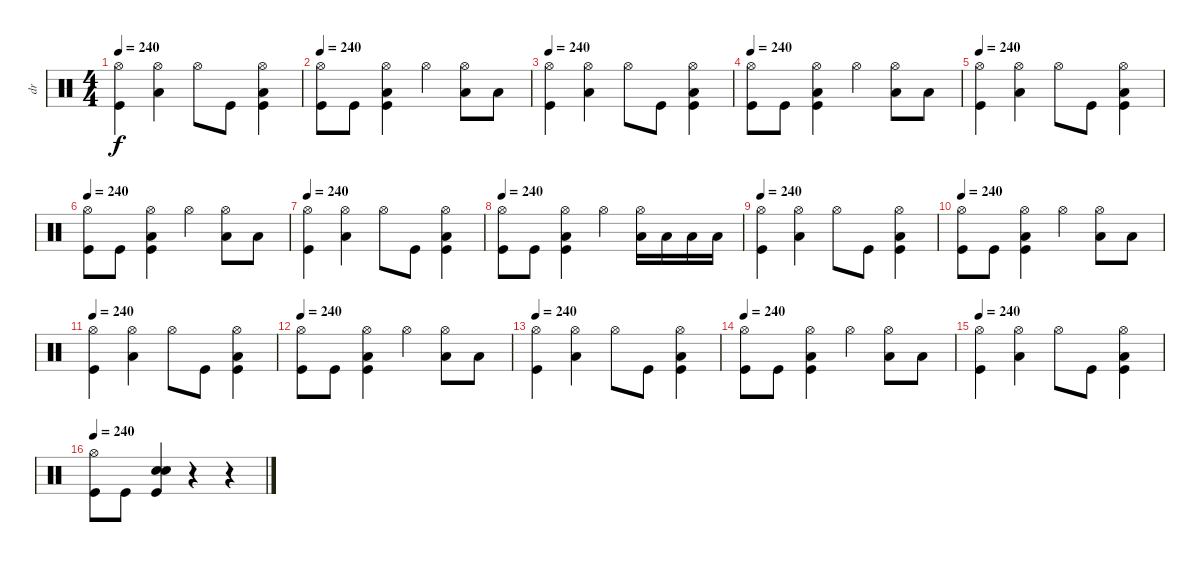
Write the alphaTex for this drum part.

\track ("dr" "dr") {instrument percussion}
\staff {score}
\articulation defaults
\ts (4 4)
\tempo 240
\clef neutral
\ks c
("Hi-Hat (open)" "Kick (hit)").4{dy f} ("Hi-Hat (open)" "Low Floor Tom (hit)").4 "Hi-Hat (open)".8 "Kick (hit)".8 ("Hi-Hat (open)" "Low Floor Tom (hit)" "Kick (hit)").4 |
\tempo 240
("Hi-Hat (open)" "Kick (hit)").8 "Kick (hit)".8 ("Hi-Hat (open)" "Low Floor Tom (hit)" "Kick (hit)").4 "Hi-Hat (open)".4 ("Hi-Hat (open)" "Low Floor Tom (hit)").8 "Low Floor Tom (hit)".8 |
\tempo 240
("Hi-Hat (open)" "Kick (hit)").4 ("Hi-Hat (open)" "Low Floor Tom (hit)").4 "Hi-Hat (open)".8 "Kick (hit)".8 ("Hi-Hat (open)" "Low Floor Tom (hit)" "Kick (hit)").4 |
\tempo 240
("Hi-Hat (open)" "Kick (hit)").8 "Kick (hit)".8 ("Hi-Hat (open)" "Low Floor Tom (hit)" "Kick (hit)").4 "Hi-Hat (open)".4 ("Hi-Hat (open)" "Low Floor Tom (hit)").8 "Low Floor Tom (hit)".8 |
\tempo 240
("Hi-Hat (open)" "Kick (hit)").4 ("Hi-Hat (open)" "Low Floor Tom (hit)").4 "Hi-Hat (open)".8 "Kick (hit)".8 ("Hi-Hat (open)" "Low Floor Tom (hit)" "Kick (hit)").4 |
\tempo 240
("Hi-Hat (open)" "Kick (hit)").8 "Kick (hit)".8 ("Hi-Hat (open)" "Low Floor Tom (hit)" "Kick (hit)").4 "Hi-Hat (open)".4 ("Hi-Hat (open)" "Low Floor Tom (hit)").8 "Low Floor Tom (hit)".8 |
\tempo 240
("Hi-Hat (open)" "Kick (hit)").4 ("Hi-Hat (open)" "Low Floor Tom (hit)").4 "Hi-Hat (open)".8 "Kick (hit)".8 ("Hi-Hat (open)" "Low Floor Tom (hit)" "Kick (hit)").4 |
\tempo 240
("Hi-Hat (open)" "Kick (hit)").8 "Kick (hit)".8 ("Hi-Hat (open)" "Low Floor Tom (hit)" "Kick (hit)").4 "Hi-Hat (open)".4 ("Hi-Hat (open)" "Low Floor Tom (hit)").16 "Low Floor Tom (hit)".16 "Low Floor Tom (hit)".16 "Low Floor Tom (hit)".16 |
\tempo 240
("Hi-Hat (open)" "Kick (hit)").4 ("Hi-Hat (open)" "Low Floor Tom (hit)").4 "Hi-Hat (open)".8 "Kick (hit)".8 ("Hi-Hat (open)" "Low Floor Tom (hit)" "Kick (hit)").4 |
\tempo 240
("Hi-Hat (open)" "Kick (hit)").8 "Kick (hit)".8 ("Hi-Hat (open)" "Low Floor Tom (hit)" "Kick (hit)").4 "Hi-Hat (open)".4 ("Hi-Hat (open)" "Low Floor Tom (hit)").8 "Low Floor Tom (hit)".8 |
\tempo 240
("Hi-Hat (open)" "Kick (hit)").4 ("Hi-Hat (open)" "Low Floor Tom (hit)").4 "Hi-Hat (open)".8 "Kick (hit)".8 ("Hi-Hat (open)" "Low Floor Tom (hit)" "Kick (hit)").4 |
\tempo 240
("Hi-Hat (open)" "Kick (hit)").8 "Kick (hit)".8 ("Hi-Hat (open)" "Low Floor Tom (hit)" "Kick (hit)").4 "Hi-Hat (open)".4 ("Hi-Hat (open)" "Low Floor Tom (hit)").8 "Low Floor Tom (hit)".8 |
\tempo 240
("Hi-Hat (open)" "Kick (hit)").4 ("Hi-Hat (open)" "Low Floor Tom (hit)").4 "Hi-Hat (open)".8 "Kick (hit)".8 ("Hi-Hat (open)" "Low Floor Tom (hit)" "Kick (hit)").4 |
\tempo 240
("Hi-Hat (open)" "Kick (hit)").8 "Kick (hit)".8 ("Hi-Hat (open)" "Low Floor Tom (hit)" "Kick (hit)").4 "Hi-Hat (open)".4 ("Hi-Hat (open)" "Low Floor Tom (hit)").8 "Low Floor Tom (hit)".8 |
\tempo 240
("Hi-Hat (open)" "Kick (hit)").4 ("Hi-Hat (open)" "Low Floor Tom (hit)").4 "Hi-Hat (open)".8 "Kick (hit)".8 ("Hi-Hat (open)" "Low Floor Tom (hit)" "Kick (hit)").4 |
\tempo 240
("Hi-Hat (open)" "Kick (hit)").8 "Kick (hit)".8 ("Electric Snare (hit)" "Snare (hit) 2" "Kick (hit)").4 r.4 r.4
